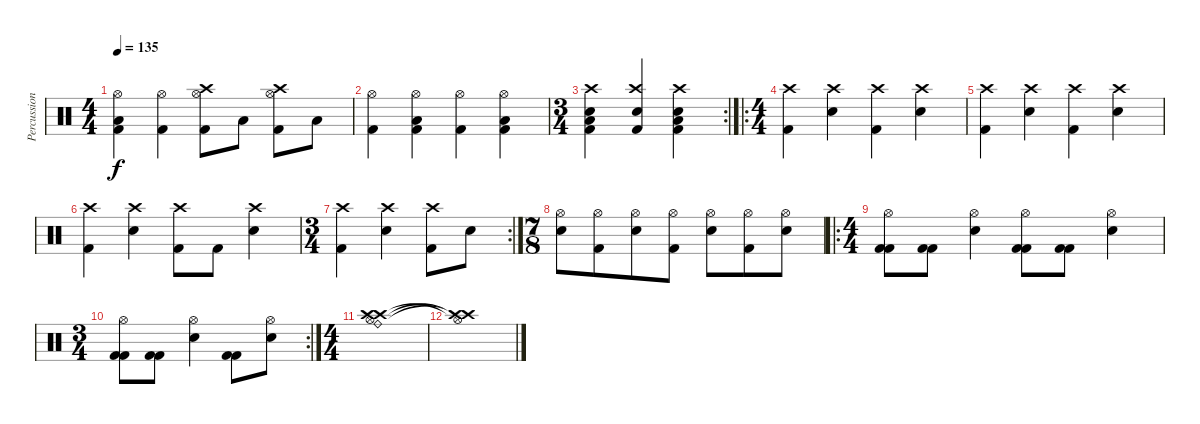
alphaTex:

\track ("Percussions" "Percussion") {instrument percussion}
\staff {score}
\articulation defaults
\ts (4 4)
\tempo 135
\clef neutral
\ks c
("Hi-Hat (open)" "Low Tom (hit)" "Kick (hit) 2").4{dy f} ("Hi-Hat (open)" "Kick (hit) 2").4 ("Hi-Hat (open)" "Crash high (hit)" "Kick (hit) 2").8 "Low Tom (hit)".8 ("Hi-Hat (open)" "Crash high (hit)" "Kick (hit) 2").8 "Low Tom (hit)".8 |
("Hi-Hat (open)" "Kick (hit) 2").4 ("Hi-Hat (open)" "Low Tom (hit)" "Kick (hit) 2").4 ("Hi-Hat (open)" "Kick (hit) 2").4 ("Hi-Hat (open)" "Low Tom (hit)" "Kick (hit) 2").4 |
\rc 2
\ts (3 4)
("Crash high (hit)" "Low Tom (hit)" "Electric Snare (hit)" "Kick (hit) 2").4 ("Crash high (hit)" "Electric Snare (hit)" "Kick (hit) 2").4 ("Crash high (hit)" "Low Tom (hit)" "Electric Snare (hit)" "Kick (hit) 2").4 |
\ro
\ts (4 4)
("Crash high (hit)" "Kick (hit) 2").4 ("Crash high (hit)" "Electric Snare (hit)").4 ("Crash high (hit)" "Kick (hit) 2").4 ("Crash high (hit)" "Electric Snare (hit)").4 |
("Crash high (hit)" "Kick (hit) 2").4 ("Crash high (hit)" "Electric Snare (hit)").4 ("Crash high (hit)" "Kick (hit) 2").4 ("Crash high (hit)" "Electric Snare (hit)").4 |
("Crash high (hit)" "Kick (hit) 2").4 ("Crash high (hit)" "Electric Snare (hit)").4 ("Crash high (hit)" "Kick (hit) 2").8 "Kick (hit) 2".8 ("Crash high (hit)" "Electric Snare (hit)").4 |
\rc 2
\ts (3 4)
("Crash high (hit)" "Kick (hit) 2").4 ("Crash high (hit)" "Electric Snare (hit)").4 ("Crash high (hit)" "Kick (hit) 2").8 "Electric Snare (hit)".8 |
\ts (7 8)
("Hi-Hat (open)" "Electric Snare (hit)").8 ("Hi-Hat (open)" "Kick (hit) 2").8 ("Hi-Hat (open)" "Electric Snare (hit)").8 ("Hi-Hat (open)" "Kick (hit) 2").8 ("Hi-Hat (open)" "Electric Snare (hit)").8 ("Hi-Hat (open)" "Kick (hit) 2").8 ("Hi-Hat (open)" "Electric Snare (hit)").8 |
\ro
\ts (4 4)
("Hi-Hat (open)" "Kick (hit) 2" "Kick (hit) 2").8 ("Kick (hit) 2" "Kick (hit) 2").8 ("Hi-Hat (open)" "Electric Snare (hit)").4 ("Hi-Hat (open)" "Kick (hit) 2" "Kick (hit) 2").8 ("Kick (hit) 2" "Kick (hit) 2").8 ("Hi-Hat (open)" "Electric Snare (hit)").4 |
\rc 2
\ts (3 4)
("Hi-Hat (open)" "Kick (hit) 2" "Kick (hit) 2").8 ("Kick (hit) 2" "Kick (hit) 2").8 ("Hi-Hat (open)" "Electric Snare (hit)").4 ("Kick (hit) 2" "Kick (hit) 2").8 ("Hi-Hat (open)" "Electric Snare (hit)").8 |
\ts (4 4)
("Ride (bell)" "Crash high (hit)" "Hi-Hat (open)" "Crash high (hit)").1 |
("Crash high (hit)"{t} "Hi-Hat (open)"{t} "Crash high (hit)"{t}).1
